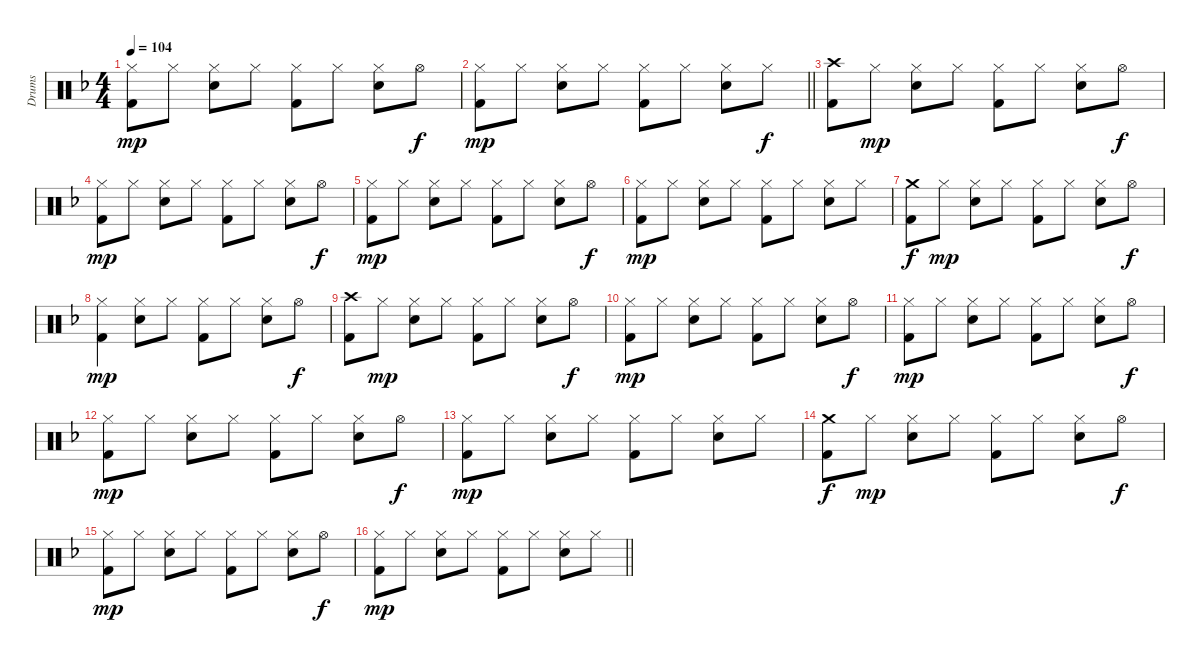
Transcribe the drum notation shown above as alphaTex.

\track ("Drums" "Drums") {instrument percussion}
\staff {score}
\articulation defaults
\ts (4 4)
\tempo 104
\clef neutral
\ks dminor
("Hi-Hat (closed)" "Kick (hit) 2").8{dy mp} "Hi-Hat (closed)".8 ("Hi-Hat (closed)" "Snare (hit) 2").8 "Hi-Hat (closed)".8 ("Hi-Hat (closed)" "Kick (hit) 2").8 "Hi-Hat (closed)".8 ("Hi-Hat (closed)" "Snare (hit) 2").8 "Hi-Hat (open)".8{dy f} |
\barLineRight lightlight
("Hi-Hat (closed)" "Kick (hit) 2").8{dy mp} "Hi-Hat (closed)".8 ("Hi-Hat (closed)" "Snare (hit) 2").8 "Hi-Hat (closed)".8 ("Hi-Hat (closed)" "Kick (hit) 2").8 "Hi-Hat (closed)".8 ("Hi-Hat (closed)" "Snare (hit) 2").8 "Hi-Hat (closed)".8{dy f} |
("Crash high (hit)" "Kick (hit) 2").8 "Hi-Hat (closed)".8{dy mp} ("Hi-Hat (closed)" "Snare (hit) 2").8 "Hi-Hat (closed)".8 ("Hi-Hat (closed)" "Kick (hit) 2").8 "Hi-Hat (closed)".8 ("Hi-Hat (closed)" "Snare (hit) 2").8 "Hi-Hat (open)".8{dy f} |
("Hi-Hat (closed)" "Kick (hit) 2").8{dy mp} "Hi-Hat (closed)".8 ("Hi-Hat (closed)" "Snare (hit) 2").8 "Hi-Hat (closed)".8 ("Hi-Hat (closed)" "Kick (hit) 2").8 "Hi-Hat (closed)".8 ("Hi-Hat (closed)" "Snare (hit) 2").8 "Hi-Hat (open)".8{dy f} |
("Hi-Hat (closed)" "Kick (hit) 2").8{dy mp} "Hi-Hat (closed)".8 ("Hi-Hat (closed)" "Snare (hit) 2").8 "Hi-Hat (closed)".8 ("Hi-Hat (closed)" "Kick (hit) 2").8 "Hi-Hat (closed)".8 ("Hi-Hat (closed)" "Snare (hit) 2").8 "Hi-Hat (open)".8{dy f} |
("Hi-Hat (closed)" "Kick (hit) 2").8{dy mp} "Hi-Hat (closed)".8 ("Hi-Hat (closed)" "Snare (hit) 2").8 "Hi-Hat (closed)".8 ("Hi-Hat (closed)" "Kick (hit) 2").8 "Hi-Hat (closed)".8 ("Hi-Hat (closed)" "Snare (hit) 2").8 "Hi-Hat (closed)".8 |
("Crash medium (hit)" "Kick (hit) 2").8{dy f} "Hi-Hat (closed)".8{dy mp} ("Hi-Hat (closed)" "Snare (hit) 2").8 "Hi-Hat (closed)".8 ("Hi-Hat (closed)" "Kick (hit) 2").8 "Hi-Hat (closed)".8 ("Hi-Hat (closed)" "Snare (hit) 2").8 "Hi-Hat (open)".8{dy f} |
("Hi-Hat (closed)" "Kick (hit) 2").4{dy mp} ("Hi-Hat (closed)" "Snare (hit) 2").8 "Hi-Hat (closed)".8 ("Hi-Hat (closed)" "Kick (hit) 2").8 "Hi-Hat (closed)".8 ("Hi-Hat (closed)" "Snare (hit) 2").8 "Hi-Hat (open)".8{dy f} |
("Crash high (hit)" "Kick (hit) 2").8 "Hi-Hat (closed)".8{dy mp} ("Hi-Hat (closed)" "Snare (hit) 2").8 "Hi-Hat (closed)".8 ("Hi-Hat (closed)" "Kick (hit) 2").8 "Hi-Hat (closed)".8 ("Hi-Hat (closed)" "Snare (hit) 2").8 "Hi-Hat (open)".8{dy f} |
("Hi-Hat (closed)" "Kick (hit) 2").8{dy mp} "Hi-Hat (closed)".8 ("Hi-Hat (closed)" "Snare (hit) 2").8 "Hi-Hat (closed)".8 ("Hi-Hat (closed)" "Kick (hit) 2").8 "Hi-Hat (closed)".8 ("Hi-Hat (closed)" "Snare (hit) 2").8 "Hi-Hat (open)".8{dy f} |
("Hi-Hat (closed)" "Kick (hit) 2").8{dy mp} "Hi-Hat (closed)".8 ("Hi-Hat (closed)" "Snare (hit) 2").8 "Hi-Hat (closed)".8 ("Hi-Hat (closed)" "Kick (hit) 2").8 "Hi-Hat (closed)".8 ("Hi-Hat (closed)" "Snare (hit) 2").8 "Hi-Hat (open)".8{dy f} |
("Hi-Hat (closed)" "Kick (hit) 2").8{dy mp} "Hi-Hat (closed)".8 ("Hi-Hat (closed)" "Snare (hit) 2").8 "Hi-Hat (closed)".8 ("Hi-Hat (closed)" "Kick (hit) 2").8 "Hi-Hat (closed)".8 ("Hi-Hat (closed)" "Snare (hit) 2").8 "Hi-Hat (open)".8{dy f} |
("Hi-Hat (closed)" "Kick (hit) 2").8{dy mp} "Hi-Hat (closed)".8 ("Hi-Hat (closed)" "Snare (hit) 2").8 "Hi-Hat (closed)".8 ("Hi-Hat (closed)" "Kick (hit) 2").8 "Hi-Hat (closed)".8 ("Hi-Hat (closed)" "Snare (hit) 2").8 "Hi-Hat (closed)".8 |
("Crash medium (hit)" "Kick (hit) 2").8{dy f} "Hi-Hat (closed)".8{dy mp} ("Hi-Hat (closed)" "Snare (hit) 2").8 "Hi-Hat (closed)".8 ("Hi-Hat (closed)" "Kick (hit) 2").8 "Hi-Hat (closed)".8 ("Hi-Hat (closed)" "Snare (hit) 2").8 "Hi-Hat (open)".8{dy f} |
("Hi-Hat (closed)" "Kick (hit) 2").8{dy mp} "Hi-Hat (closed)".8 ("Hi-Hat (closed)" "Snare (hit) 2").8 "Hi-Hat (closed)".8 ("Hi-Hat (closed)" "Kick (hit) 2").8 "Hi-Hat (closed)".8 ("Hi-Hat (closed)" "Snare (hit) 2").8 "Hi-Hat (open)".8{dy f} |
\barLineRight lightlight
("Hi-Hat (closed)" "Kick (hit) 2").8{dy mp} "Hi-Hat (closed)".8 ("Hi-Hat (closed)" "Snare (hit) 2").8 "Hi-Hat (closed)".8 ("Hi-Hat (closed)" "Kick (hit) 2").8 "Hi-Hat (closed)".8 ("Hi-Hat (closed)" "Snare (hit) 2").8 "Hi-Hat (closed)".8
